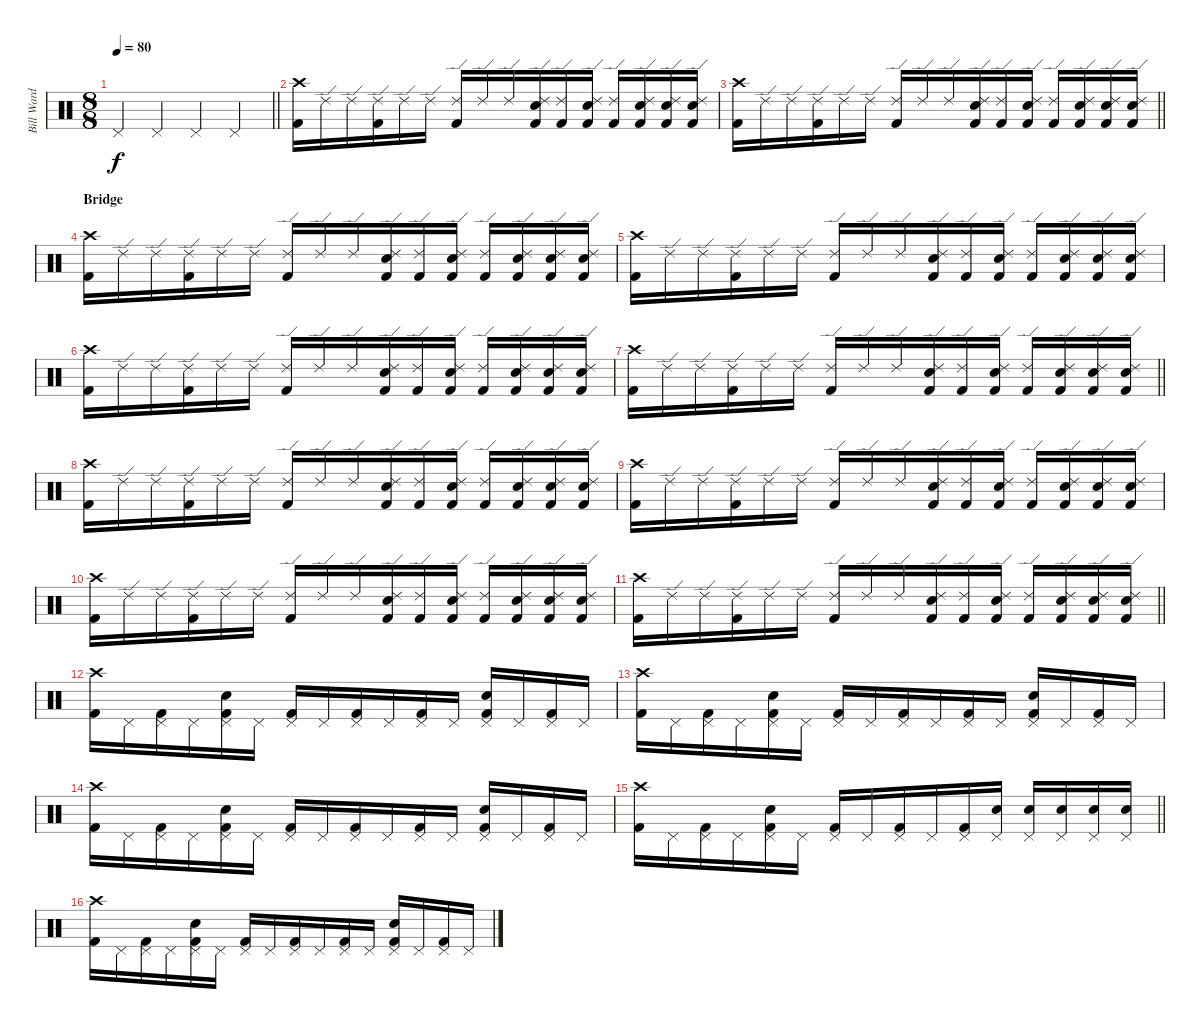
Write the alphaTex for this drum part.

\track ("Bill Ward (Drums)" "Bill Ward ") {instrument percussion}
\staff {score}
\articulation defaults
\ts (8 8)
\tempo 80
\clef neutral
\barLineRight lightlight
\ks c "Pedal Hi-Hat (hit)".4{dy f} "Pedal Hi-Hat (hit)".4 "Pedal Hi-Hat (hit)".4 "Pedal Hi-Hat (hit)".4
|
("Kick (hit) 2" "Crash high (hit)").16 "Ride (edge) 2".16 "Ride (edge) 2".16 ("Kick (hit) 2" "Ride (edge) 2").16 "Ride (edge) 2".16 "Ride (edge) 2".16 ("Kick (hit) 2" "Ride (edge) 2").16 "Ride (edge) 2".16 "Ride (edge) 2".16 ("Kick (hit) 2" "Snare (hit) 2" "Ride (edge) 2").16 ("Kick (hit) 2" "Ride (edge) 2").16 ("Kick (hit) 2" "Snare (hit) 2" "Ride (edge) 2").16 ("Kick (hit) 2" "Ride (edge) 2").16 ("Kick (hit) 2" "Snare (hit) 2" "Ride (edge) 2").16 ("Kick (hit) 2" "Snare (hit) 2" "Ride (edge) 2").16 ("Kick (hit) 2" "Snare (hit) 2" "Ride (edge) 2").16 |
\barLineRight lightlight
("Kick (hit) 2" "Crash high (hit)").16 "Ride (edge) 2".16 "Ride (edge) 2".16 ("Kick (hit) 2" "Ride (edge) 2").16 "Ride (edge) 2".16 "Ride (edge) 2".16 ("Kick (hit) 2" "Ride (edge) 2").16 "Ride (edge) 2".16 "Ride (edge) 2".16 ("Kick (hit) 2" "Snare (hit) 2" "Ride (edge) 2").16 ("Kick (hit) 2" "Ride (edge) 2").16 ("Kick (hit) 2" "Snare (hit) 2" "Ride (edge) 2").16 ("Kick (hit) 2" "Ride (edge) 2").16 ("Kick (hit) 2" "Snare (hit) 2" "Ride (edge) 2").16 ("Kick (hit) 2" "Snare (hit) 2" "Ride (edge) 2").16 ("Kick (hit) 2" "Snare (hit) 2" "Ride (edge) 2").16 |
\section ("" "Bridge")
("Kick (hit) 2" "Crash high (hit)").16 "Ride (edge) 2".16 "Ride (edge) 2".16 ("Kick (hit) 2" "Ride (edge) 2").16 "Ride (edge) 2".16 "Ride (edge) 2".16 ("Kick (hit) 2" "Ride (edge) 2").16 "Ride (edge) 2".16 "Ride (edge) 2".16 ("Kick (hit) 2" "Snare (hit) 2" "Ride (edge) 2").16 ("Kick (hit) 2" "Ride (edge) 2").16 ("Kick (hit) 2" "Snare (hit) 2" "Ride (edge) 2").16 ("Kick (hit) 2" "Ride (edge) 2").16 ("Kick (hit) 2" "Snare (hit) 2" "Ride (edge) 2").16 ("Kick (hit) 2" "Snare (hit) 2" "Ride (edge) 2").16 ("Kick (hit) 2" "Snare (hit) 2" "Ride (edge) 2").16 |
("Kick (hit) 2" "Crash high (hit)").16 "Ride (edge) 2".16 "Ride (edge) 2".16 ("Kick (hit) 2" "Ride (edge) 2").16 "Ride (edge) 2".16 "Ride (edge) 2".16 ("Kick (hit) 2" "Ride (edge) 2").16 "Ride (edge) 2".16 "Ride (edge) 2".16 ("Kick (hit) 2" "Snare (hit) 2" "Ride (edge) 2").16 ("Kick (hit) 2" "Ride (edge) 2").16 ("Kick (hit) 2" "Snare (hit) 2" "Ride (edge) 2").16 ("Kick (hit) 2" "Ride (edge) 2").16 ("Kick (hit) 2" "Snare (hit) 2" "Ride (edge) 2").16 ("Kick (hit) 2" "Snare (hit) 2" "Ride (edge) 2").16 ("Kick (hit) 2" "Snare (hit) 2" "Ride (edge) 2").16 |
("Kick (hit) 2" "Crash high (hit)").16 "Ride (edge) 2".16 "Ride (edge) 2".16 ("Kick (hit) 2" "Ride (edge) 2").16 "Ride (edge) 2".16 "Ride (edge) 2".16 ("Kick (hit) 2" "Ride (edge) 2").16 "Ride (edge) 2".16 "Ride (edge) 2".16 ("Kick (hit) 2" "Snare (hit) 2" "Ride (edge) 2").16 ("Kick (hit) 2" "Ride (edge) 2").16 ("Kick (hit) 2" "Snare (hit) 2" "Ride (edge) 2").16 ("Kick (hit) 2" "Ride (edge) 2").16 ("Kick (hit) 2" "Snare (hit) 2" "Ride (edge) 2").16 ("Kick (hit) 2" "Snare (hit) 2" "Ride (edge) 2").16 ("Kick (hit) 2" "Snare (hit) 2" "Ride (edge) 2").16 |
\barLineRight lightlight
("Kick (hit) 2" "Crash high (hit)").16 "Ride (edge) 2".16 "Ride (edge) 2".16 ("Kick (hit) 2" "Ride (edge) 2").16 "Ride (edge) 2".16 "Ride (edge) 2".16 ("Kick (hit) 2" "Ride (edge) 2").16 "Ride (edge) 2".16 "Ride (edge) 2".16 ("Kick (hit) 2" "Snare (hit) 2" "Ride (edge) 2").16 ("Kick (hit) 2" "Ride (edge) 2").16 ("Kick (hit) 2" "Snare (hit) 2" "Ride (edge) 2").16 ("Kick (hit) 2" "Ride (edge) 2").16 ("Kick (hit) 2" "Snare (hit) 2" "Ride (edge) 2").16 ("Kick (hit) 2" "Snare (hit) 2" "Ride (edge) 2").16 ("Kick (hit) 2" "Snare (hit) 2" "Ride (edge) 2").16 |
("Kick (hit) 2" "Crash high (hit)").16 "Ride (edge) 2".16 "Ride (edge) 2".16 ("Kick (hit) 2" "Ride (edge) 2").16 "Ride (edge) 2".16 "Ride (edge) 2".16 ("Kick (hit) 2" "Ride (edge) 2").16 "Ride (edge) 2".16 "Ride (edge) 2".16 ("Kick (hit) 2" "Snare (hit) 2" "Ride (edge) 2").16 ("Kick (hit) 2" "Ride (edge) 2").16 ("Kick (hit) 2" "Snare (hit) 2" "Ride (edge) 2").16 ("Kick (hit) 2" "Ride (edge) 2").16 ("Kick (hit) 2" "Snare (hit) 2" "Ride (edge) 2").16 ("Kick (hit) 2" "Snare (hit) 2" "Ride (edge) 2").16 ("Kick (hit) 2" "Snare (hit) 2" "Ride (edge) 2").16 |
("Kick (hit) 2" "Crash high (hit)").16 "Ride (edge) 2".16 "Ride (edge) 2".16 ("Kick (hit) 2" "Ride (edge) 2").16 "Ride (edge) 2".16 "Ride (edge) 2".16 ("Kick (hit) 2" "Ride (edge) 2").16 "Ride (edge) 2".16 "Ride (edge) 2".16 ("Kick (hit) 2" "Snare (hit) 2" "Ride (edge) 2").16 ("Kick (hit) 2" "Ride (edge) 2").16 ("Kick (hit) 2" "Snare (hit) 2" "Ride (edge) 2").16 ("Kick (hit) 2" "Ride (edge) 2").16 ("Kick (hit) 2" "Snare (hit) 2" "Ride (edge) 2").16 ("Kick (hit) 2" "Snare (hit) 2" "Ride (edge) 2").16 ("Kick (hit) 2" "Snare (hit) 2" "Ride (edge) 2").16 |
("Kick (hit) 2" "Crash high (hit)").16 "Ride (edge) 2".16 "Ride (edge) 2".16 ("Kick (hit) 2" "Ride (edge) 2").16 "Ride (edge) 2".16 "Ride (edge) 2".16 ("Kick (hit) 2" "Ride (edge) 2").16 "Ride (edge) 2".16 "Ride (edge) 2".16 ("Kick (hit) 2" "Snare (hit) 2" "Ride (edge) 2").16 ("Kick (hit) 2" "Ride (edge) 2").16 ("Kick (hit) 2" "Snare (hit) 2" "Ride (edge) 2").16 ("Kick (hit) 2" "Ride (edge) 2").16 ("Kick (hit) 2" "Snare (hit) 2" "Ride (edge) 2").16 ("Kick (hit) 2" "Snare (hit) 2" "Ride (edge) 2").16 ("Kick (hit) 2" "Snare (hit) 2" "Ride (edge) 2").16 |
\barLineRight lightlight
("Kick (hit) 2" "Crash high (hit)").16 "Ride (edge) 2".16 "Ride (edge) 2".16 ("Kick (hit) 2" "Ride (edge) 2").16 "Ride (edge) 2".16 "Ride (edge) 2".16 ("Kick (hit) 2" "Ride (edge) 2").16 "Ride (edge) 2".16 "Ride (edge) 2".16 ("Kick (hit) 2" "Snare (hit) 2" "Ride (edge) 2").16 ("Kick (hit) 2" "Ride (edge) 2").16 ("Kick (hit) 2" "Snare (hit) 2" "Ride (edge) 2").16 ("Kick (hit) 2" "Ride (edge) 2").16 ("Kick (hit) 2" "Snare (hit) 2" "Ride (edge) 2").16 ("Kick (hit) 2" "Snare (hit) 2" "Ride (edge) 2").16 ("Kick (hit) 2" "Snare (hit) 2" "Ride (edge) 2").16 |
("Kick (hit) 2" "Crash high (hit)").16 "Pedal Hi-Hat (hit)".16 ("Kick (hit) 2" "Pedal Hi-Hat (hit)").16 "Pedal Hi-Hat (hit)".16 ("Kick (hit) 2" "Snare (hit) 2" "Pedal Hi-Hat (hit)").16 "Pedal Hi-Hat (hit)".16 ("Kick (hit) 2" "Pedal Hi-Hat (hit)").16 "Pedal Hi-Hat (hit)".16 ("Kick (hit) 2" "Pedal Hi-Hat (hit)").16 "Pedal Hi-Hat (hit)".16 ("Kick (hit) 2" "Pedal Hi-Hat (hit)").16 "Pedal Hi-Hat (hit)".16 ("Kick (hit) 2" "Snare (hit) 2" "Pedal Hi-Hat (hit)").16 "Pedal Hi-Hat (hit)".16 ("Kick (hit) 2" "Pedal Hi-Hat (hit)").16 "Pedal Hi-Hat (hit)".16 |
("Kick (hit) 2" "Crash high (hit)").16 "Pedal Hi-Hat (hit)".16 ("Kick (hit) 2" "Pedal Hi-Hat (hit)").16 "Pedal Hi-Hat (hit)".16 ("Kick (hit) 2" "Snare (hit) 2" "Pedal Hi-Hat (hit)").16 "Pedal Hi-Hat (hit)".16 ("Kick (hit) 2" "Pedal Hi-Hat (hit)").16 "Pedal Hi-Hat (hit)".16 ("Kick (hit) 2" "Pedal Hi-Hat (hit)").16 "Pedal Hi-Hat (hit)".16 ("Kick (hit) 2" "Pedal Hi-Hat (hit)").16 "Pedal Hi-Hat (hit)".16 ("Kick (hit) 2" "Snare (hit) 2" "Pedal Hi-Hat (hit)").16 "Pedal Hi-Hat (hit)".16 ("Kick (hit) 2" "Pedal Hi-Hat (hit)").16 "Pedal Hi-Hat (hit)".16 |
("Kick (hit) 2" "Crash high (hit)").16 "Pedal Hi-Hat (hit)".16 ("Kick (hit) 2" "Pedal Hi-Hat (hit)").16 "Pedal Hi-Hat (hit)".16 ("Kick (hit) 2" "Snare (hit) 2" "Pedal Hi-Hat (hit)").16 "Pedal Hi-Hat (hit)".16 ("Kick (hit) 2" "Pedal Hi-Hat (hit)").16 "Pedal Hi-Hat (hit)".16 ("Kick (hit) 2" "Pedal Hi-Hat (hit)").16 "Pedal Hi-Hat (hit)".16 ("Kick (hit) 2" "Pedal Hi-Hat (hit)").16 "Pedal Hi-Hat (hit)".16 ("Kick (hit) 2" "Snare (hit) 2" "Pedal Hi-Hat (hit)").16 "Pedal Hi-Hat (hit)".16 ("Kick (hit) 2" "Pedal Hi-Hat (hit)").16 "Pedal Hi-Hat (hit)".16 |
\barLineRight lightlight
("Kick (hit) 2" "Crash high (hit)").16 "Pedal Hi-Hat (hit)".16 ("Kick (hit) 2" "Pedal Hi-Hat (hit)").16 "Pedal Hi-Hat (hit)".16 ("Kick (hit) 2" "Snare (hit) 2" "Pedal Hi-Hat (hit)").16 "Pedal Hi-Hat (hit)".16 ("Kick (hit) 2" "Pedal Hi-Hat (hit)").16 "Pedal Hi-Hat (hit)".16 ("Kick (hit) 2" "Pedal Hi-Hat (hit)").16 "Pedal Hi-Hat (hit)".16 ("Kick (hit) 2" "Pedal Hi-Hat (hit)").16 ("Snare (hit) 2" "Pedal Hi-Hat (hit)").16 ("Snare (hit) 2" "Pedal Hi-Hat (hit)").16 ("Snare (hit) 2" "Pedal Hi-Hat (hit)").16 ("Snare (hit) 2" "Pedal Hi-Hat (hit)").16 ("Snare (hit) 2" "Pedal Hi-Hat (hit)").16 |
("Kick (hit) 2" "Crash high (hit)").16 "Pedal Hi-Hat (hit)".16 ("Kick (hit) 2" "Pedal Hi-Hat (hit)").16 "Pedal Hi-Hat (hit)".16 ("Kick (hit) 2" "Snare (hit) 2" "Pedal Hi-Hat (hit)").16 "Pedal Hi-Hat (hit)".16 ("Kick (hit) 2" "Pedal Hi-Hat (hit)").16 "Pedal Hi-Hat (hit)".16 ("Kick (hit) 2" "Pedal Hi-Hat (hit)").16 "Pedal Hi-Hat (hit)".16 ("Kick (hit) 2" "Pedal Hi-Hat (hit)").16 "Pedal Hi-Hat (hit)".16 ("Kick (hit) 2" "Snare (hit) 2" "Pedal Hi-Hat (hit)").16 "Pedal Hi-Hat (hit)".16 ("Kick (hit) 2" "Pedal Hi-Hat (hit)").16 "Pedal Hi-Hat (hit)".16
